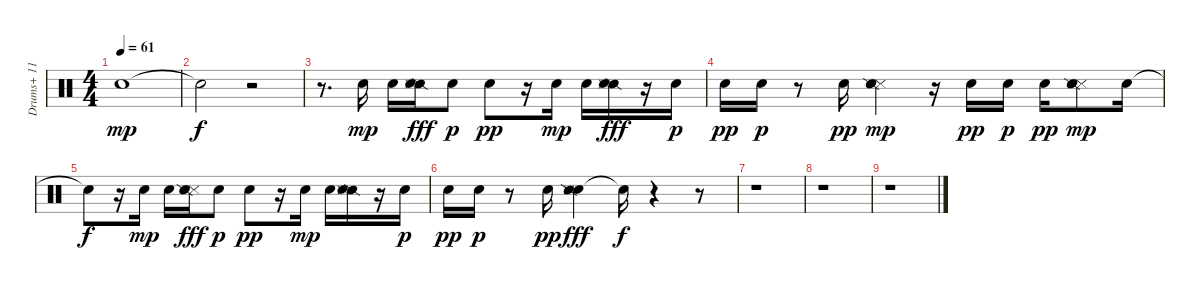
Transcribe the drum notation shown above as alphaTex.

\track ("Drums+ 11" "Drums+ 11") {instrument percussion}
\staff {score}
\articulation defaults
\ts (4 4)
\tempo 61
\clef neutral
\ks c "Hand Clap (hit)".1{dy mp}
|
"Snare (hit)"{t}.2{dy f} r.2 |
r.8{d} "Hand Clap (hit)".16{dy mp} "Hand Clap (hit)".16 ("Snare (side stick) 2" "Snare (side stick) 3" "Hand Clap (hit)").16{dy fff} "Hand Clap (hit)".8{dy p} "Hand Clap (hit)".8{dy pp} r.16 "Hand Clap (hit)".16{dy mp} "Hand Clap (hit)".16 ("Snare (side stick) 2" "Hand Clap (hit)" "Snare (side stick) 3").16{dy fff} r.16 "Hand Clap (hit)".16{dy p} |
"Hand Clap (hit)".16{dy pp} "Hand Clap (hit)".16{dy p} r.8 "Hand Clap (hit)".16{dy pp} ("Snare (side stick) 3" "Snare (side stick) 2" "Hand Clap (hit)").4{dy mp} r.16 "Hand Clap (hit)".16{dy pp} "Hand Clap (hit)".16{dy p} "Hand Clap (hit)".16{dy pp} ("Snare (side stick) 3" "Snare (side stick) 2" "Hand Clap (hit)").8{dy mp} "Hand Clap (hit)".16 |
"Snare (hit)"{t}.8{dy f} r.16 "Hand Clap (hit)".16{dy mp} "Hand Clap (hit)".16 ("Snare (side stick) 3" "Hand Clap (hit)" "Snare (side stick) 2").16{dy fff} "Hand Clap (hit)".8{dy p} "Hand Clap (hit)".8{dy pp} r.16 "Hand Clap (hit)".16{dy mp} "Hand Clap (hit)".16 ("Snare (side stick) 2" "Snare (side stick) 3" "Hand Clap (hit)").16 r.16 "Hand Clap (hit)".16{dy p} |
"Hand Clap (hit)".16{dy pp} "Hand Clap (hit)".16{dy p} r.8 "Hand Clap (hit)".16{dy pp} ("Hand Clap (hit)" "Snare (side stick) 3" "Snare (side stick) 2").4{dy fff} "Snare (hit)"{t}.16{dy f} r.4 r.8 |
r.1 |
r.1 |
r.1
